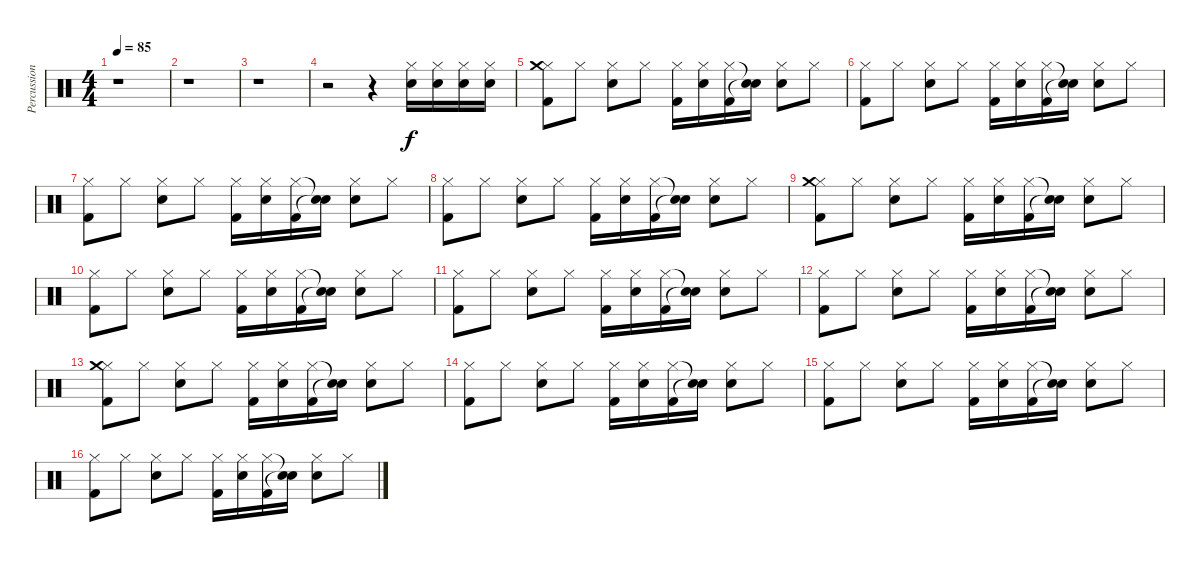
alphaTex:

\track ("Percussion" "Percussion") {instrument percussion}
\staff {score}
\articulation defaults
\ts (4 4)
\tempo 85
\clef neutral
\ks c
r.1{dy f} |
r.1 |
r.1 |
r.2 r.4 ("Hi-Hat (closed)" "Snare (hit) 2").16 ("Hi-Hat (closed)" "Snare (hit) 2").16 ("Hi-Hat (closed)" "Snare (hit) 2").16 ("Hi-Hat (closed)" "Snare (hit) 2").16 |
("Hi-Hat (closed)" "Crash medium (hit)" "Kick (hit) 2").8 "Hi-Hat (closed)".8 ("Hi-Hat (closed)" "Snare (hit) 2").8 "Hi-Hat (closed)".8 ("Hi-Hat (closed)" "Kick (hit) 2").16 ("Hi-Hat (closed)" "Snare (hit) 2").16 ("Hi-Hat (closed)" "Kick (hit) 2").16 ("Snare (hit)"{t} "Snare (hit)"{t}).16 ("Hi-Hat (closed)" "Snare (hit) 2").8 "Hi-Hat (closed)".8 |
("Hi-Hat (closed)" "Kick (hit) 2").8 "Hi-Hat (closed)".8 ("Hi-Hat (closed)" "Snare (hit) 2").8 "Hi-Hat (closed)".8 ("Hi-Hat (closed)" "Kick (hit) 2").16 ("Hi-Hat (closed)" "Snare (hit) 2").16 ("Hi-Hat (closed)" "Kick (hit) 2").16 ("Snare (hit)"{t} "Snare (hit)"{t}).16 ("Hi-Hat (closed)" "Snare (hit) 2").8 "Hi-Hat (closed)".8 |
("Hi-Hat (closed)" "Kick (hit) 2").8 "Hi-Hat (closed)".8 ("Hi-Hat (closed)" "Snare (hit) 2").8 "Hi-Hat (closed)".8 ("Hi-Hat (closed)" "Kick (hit) 2").16 ("Hi-Hat (closed)" "Snare (hit) 2").16 ("Hi-Hat (closed)" "Kick (hit) 2").16 ("Snare (hit)"{t} "Snare (hit)"{t}).16 ("Hi-Hat (closed)" "Snare (hit) 2").8 "Hi-Hat (closed)".8 |
("Hi-Hat (closed)" "Kick (hit) 2").8 "Hi-Hat (closed)".8 ("Hi-Hat (closed)" "Snare (hit) 2").8 "Hi-Hat (closed)".8 ("Hi-Hat (closed)" "Kick (hit) 2").16 ("Hi-Hat (closed)" "Snare (hit) 2").16 ("Hi-Hat (closed)" "Kick (hit) 2").16 ("Snare (hit)"{t} "Snare (hit)"{t}).16 ("Hi-Hat (closed)" "Snare (hit) 2").8 "Hi-Hat (closed)".8 |
("Hi-Hat (closed)" "Crash medium (hit)" "Kick (hit) 2").8 "Hi-Hat (closed)".8 ("Hi-Hat (closed)" "Snare (hit) 2").8 "Hi-Hat (closed)".8 ("Hi-Hat (closed)" "Kick (hit) 2").16 ("Hi-Hat (closed)" "Snare (hit) 2").16 ("Hi-Hat (closed)" "Kick (hit) 2").16 ("Snare (hit)"{t} "Snare (hit)"{t}).16 ("Hi-Hat (closed)" "Snare (hit) 2").8 "Hi-Hat (closed)".8 |
("Hi-Hat (closed)" "Kick (hit) 2").8 "Hi-Hat (closed)".8 ("Hi-Hat (closed)" "Snare (hit) 2").8 "Hi-Hat (closed)".8 ("Hi-Hat (closed)" "Kick (hit) 2").16 ("Hi-Hat (closed)" "Snare (hit) 2").16 ("Hi-Hat (closed)" "Kick (hit) 2").16 ("Snare (hit)"{t} "Snare (hit)"{t}).16 ("Hi-Hat (closed)" "Snare (hit) 2").8 "Hi-Hat (closed)".8 |
("Hi-Hat (closed)" "Kick (hit) 2").8 "Hi-Hat (closed)".8 ("Hi-Hat (closed)" "Snare (hit) 2").8 "Hi-Hat (closed)".8 ("Hi-Hat (closed)" "Kick (hit) 2").16 ("Hi-Hat (closed)" "Snare (hit) 2").16 ("Hi-Hat (closed)" "Kick (hit) 2").16 ("Snare (hit)"{t} "Snare (hit)"{t}).16 ("Hi-Hat (closed)" "Snare (hit) 2").8 "Hi-Hat (closed)".8 |
("Hi-Hat (closed)" "Kick (hit) 2").8 "Hi-Hat (closed)".8 ("Hi-Hat (closed)" "Snare (hit) 2").8 "Hi-Hat (closed)".8 ("Hi-Hat (closed)" "Kick (hit) 2").16 ("Hi-Hat (closed)" "Snare (hit) 2").16 ("Hi-Hat (closed)" "Kick (hit) 2").16 ("Snare (hit)"{t} "Snare (hit)"{t}).16 ("Hi-Hat (closed)" "Snare (hit) 2").8 "Hi-Hat (closed)".8 |
("Hi-Hat (closed)" "Crash medium (hit)" "Kick (hit) 2").8 "Hi-Hat (closed)".8 ("Hi-Hat (closed)" "Snare (hit) 2").8 "Hi-Hat (closed)".8 ("Hi-Hat (closed)" "Kick (hit) 2").16 ("Hi-Hat (closed)" "Snare (hit) 2").16 ("Hi-Hat (closed)" "Kick (hit) 2").16 ("Snare (hit)"{t} "Snare (hit)"{t}).16 ("Hi-Hat (closed)" "Snare (hit) 2").8 "Hi-Hat (closed)".8 |
("Hi-Hat (closed)" "Kick (hit) 2").8 "Hi-Hat (closed)".8 ("Hi-Hat (closed)" "Snare (hit) 2").8 "Hi-Hat (closed)".8 ("Hi-Hat (closed)" "Kick (hit) 2").16 ("Hi-Hat (closed)" "Snare (hit) 2").16 ("Hi-Hat (closed)" "Kick (hit) 2").16 ("Snare (hit)"{t} "Snare (hit)"{t}).16 ("Hi-Hat (closed)" "Snare (hit) 2").8 "Hi-Hat (closed)".8 |
("Hi-Hat (closed)" "Kick (hit) 2").8 "Hi-Hat (closed)".8 ("Hi-Hat (closed)" "Snare (hit) 2").8 "Hi-Hat (closed)".8 ("Hi-Hat (closed)" "Kick (hit) 2").16 ("Hi-Hat (closed)" "Snare (hit) 2").16 ("Hi-Hat (closed)" "Kick (hit) 2").16 ("Snare (hit)"{t} "Snare (hit)"{t}).16 ("Hi-Hat (closed)" "Snare (hit) 2").8 "Hi-Hat (closed)".8 |
("Hi-Hat (closed)" "Kick (hit) 2").8 "Hi-Hat (closed)".8 ("Hi-Hat (closed)" "Snare (hit) 2").8 "Hi-Hat (closed)".8 ("Hi-Hat (closed)" "Kick (hit) 2").16 ("Hi-Hat (closed)" "Snare (hit) 2").16 ("Hi-Hat (closed)" "Kick (hit) 2").16 ("Snare (hit)"{t} "Snare (hit)"{t}).16 ("Hi-Hat (closed)" "Snare (hit) 2").8 "Hi-Hat (closed)".8
